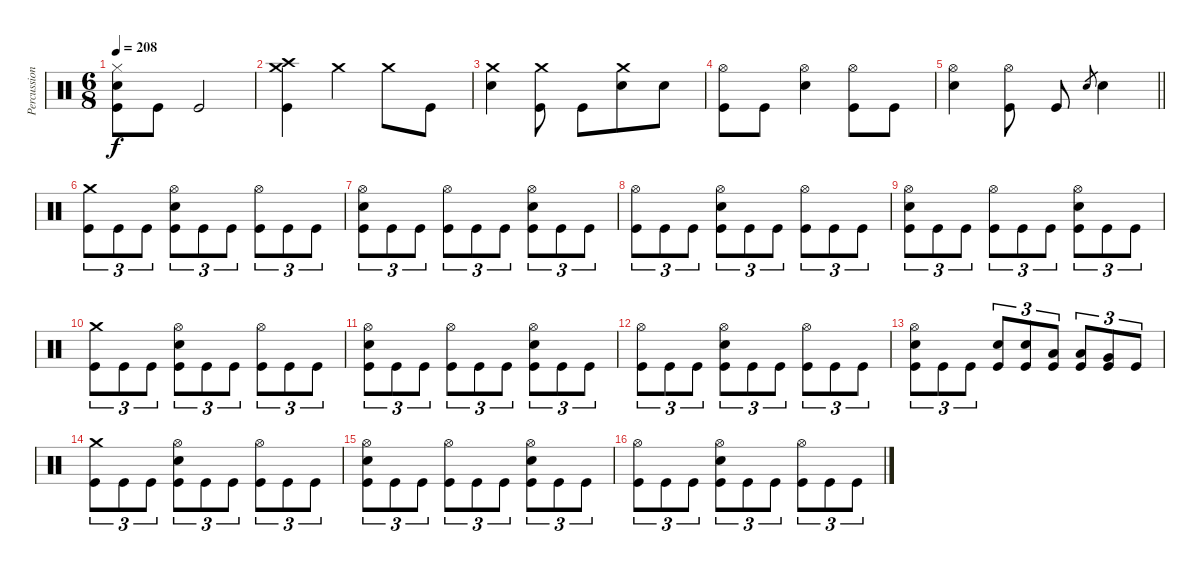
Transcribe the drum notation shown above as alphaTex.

\track ("Percussion" "Percussion") {instrument percussion}
\staff {score}
\articulation defaults
\ts (6 8)
\tempo 208
\clef neutral
\ks c
("Hi-Hat (closed)" "Electric Snare (hit)" "Kick (hit)").8{dy f} "Kick (hit)".8 "Kick (hit)".2 |
("Crash medium (hit)" "Crash high (hit)" "Kick (hit)").4 "Crash medium (hit)".4 "Crash medium (hit)".8 "Kick (hit)".8 |
("Crash medium (hit)" "Electric Snare (hit)").4 ("Crash medium (hit)" "Kick (hit)").8 "Kick (hit)".8 ("Crash medium (hit)" "Electric Snare (hit)").8 "Electric Snare (hit)".8 |
("Hi-Hat (open)" "Kick (hit)").8 "Kick (hit)".8 ("Hi-Hat (open)" "Electric Snare (hit)").4 ("Hi-Hat (open)" "Kick (hit)").8 "Kick (hit)".8 |
\barLineRight lightlight
("Hi-Hat (open)" "Electric Snare (hit)").4 ("Hi-Hat (open)" "Kick (hit)").8 "Kick (hit)".8 "Electric Snare (hit)".8{gr} "Electric Snare (hit)".4 |
("Crash medium (hit)" "Kick (hit)").8{tu (3 2)} "Kick (hit)".8{tu (3 2)} "Kick (hit)".8{tu (3 2)} ("Hi-Hat (open)" "Electric Snare (hit)" "Kick (hit)").8{tu (3 2)} "Kick (hit)".8{tu (3 2)} "Kick (hit)".8{tu (3 2)} ("Hi-Hat (open)" "Kick (hit)").8{tu (3 2)} "Kick (hit)".8{tu (3 2)} "Kick (hit)".8{tu (3 2)} |
("Hi-Hat (open)" "Electric Snare (hit)" "Kick (hit)").8{tu (3 2)} "Kick (hit)".8{tu (3 2)} "Kick (hit)".8{tu (3 2)} ("Hi-Hat (open)" "Kick (hit)").8{tu (3 2)} "Kick (hit)".8{tu (3 2)} "Kick (hit)".8{tu (3 2)} ("Hi-Hat (open)" "Electric Snare (hit)" "Kick (hit)").8{tu (3 2)} "Kick (hit)".8{tu (3 2)} "Kick (hit)".8{tu (3 2)} |
("Hi-Hat (open)" "Kick (hit)").8{tu (3 2)} "Kick (hit)".8{tu (3 2)} "Kick (hit)".8{tu (3 2)} ("Hi-Hat (open)" "Electric Snare (hit)" "Kick (hit)").8{tu (3 2)} "Kick (hit)".8{tu (3 2)} "Kick (hit)".8{tu (3 2)} ("Hi-Hat (open)" "Kick (hit)").8{tu (3 2)} "Kick (hit)".8{tu (3 2)} "Kick (hit)".8{tu (3 2)} |
("Hi-Hat (open)" "Electric Snare (hit)" "Kick (hit)").8{tu (3 2)} "Kick (hit)".8{tu (3 2)} "Kick (hit)".8{tu (3 2)} ("Hi-Hat (open)" "Kick (hit)").8{tu (3 2)} "Kick (hit)".8{tu (3 2)} "Kick (hit)".8{tu (3 2)} ("Hi-Hat (open)" "Electric Snare (hit)" "Kick (hit)").8{tu (3 2)} "Kick (hit)".8{tu (3 2)} "Kick (hit)".8{tu (3 2)} |
("Crash medium (hit)" "Kick (hit)").8{tu (3 2)} "Kick (hit)".8{tu (3 2)} "Kick (hit)".8{tu (3 2)} ("Hi-Hat (open)" "Electric Snare (hit)" "Kick (hit)").8{tu (3 2)} "Kick (hit)".8{tu (3 2)} "Kick (hit)".8{tu (3 2)} ("Hi-Hat (open)" "Kick (hit)").8{tu (3 2)} "Kick (hit)".8{tu (3 2)} "Kick (hit)".8{tu (3 2)} |
("Hi-Hat (open)" "Electric Snare (hit)" "Kick (hit)").8{tu (3 2)} "Kick (hit)".8{tu (3 2)} "Kick (hit)".8{tu (3 2)} ("Hi-Hat (open)" "Kick (hit)").8{tu (3 2)} "Kick (hit)".8{tu (3 2)} "Kick (hit)".8{tu (3 2)} ("Hi-Hat (open)" "Electric Snare (hit)" "Kick (hit)").8{tu (3 2)} "Kick (hit)".8{tu (3 2)} "Kick (hit)".8{tu (3 2)} |
("Hi-Hat (open)" "Kick (hit)").8{tu (3 2)} "Kick (hit)".8{tu (3 2)} "Kick (hit)".8{tu (3 2)} ("Hi-Hat (open)" "Electric Snare (hit)" "Kick (hit)").8{tu (3 2)} "Kick (hit)".8{tu (3 2)} "Kick (hit)".8{tu (3 2)} ("Hi-Hat (open)" "Kick (hit)").8{tu (3 2)} "Kick (hit)".8{tu (3 2)} "Kick (hit)".8{tu (3 2)} |
("Hi-Hat (open)" "Electric Snare (hit)" "Kick (hit)").8{tu (3 2)} "Kick (hit)".8{tu (3 2)} "Kick (hit)".8{tu (3 2)} ("Electric Snare (hit)" "Kick (hit)").8{tu (3 2)} ("Electric Snare (hit)" "Kick (hit)").8{tu (3 2)} ("Low Tom (hit)" "Kick (hit)").8{tu (3 2)} ("Low Tom (hit)" "Kick (hit)").8{tu (3 2)} ("Very Low Tom (hit)" "Kick (hit)").8{tu (3 2)} "Kick (hit)".8{tu (3 2)} |
("Crash medium (hit)" "Kick (hit)").8{tu (3 2)} "Kick (hit)".8{tu (3 2)} "Kick (hit)".8{tu (3 2)} ("Hi-Hat (open)" "Electric Snare (hit)" "Kick (hit)").8{tu (3 2)} "Kick (hit)".8{tu (3 2)} "Kick (hit)".8{tu (3 2)} ("Hi-Hat (open)" "Kick (hit)").8{tu (3 2)} "Kick (hit)".8{tu (3 2)} "Kick (hit)".8{tu (3 2)} |
("Hi-Hat (open)" "Electric Snare (hit)" "Kick (hit)").8{tu (3 2)} "Kick (hit)".8{tu (3 2)} "Kick (hit)".8{tu (3 2)} ("Hi-Hat (open)" "Kick (hit)").8{tu (3 2)} "Kick (hit)".8{tu (3 2)} "Kick (hit)".8{tu (3 2)} ("Hi-Hat (open)" "Electric Snare (hit)" "Kick (hit)").8{tu (3 2)} "Kick (hit)".8{tu (3 2)} "Kick (hit)".8{tu (3 2)} |
("Hi-Hat (open)" "Kick (hit)").8{tu (3 2)} "Kick (hit)".8{tu (3 2)} "Kick (hit)".8{tu (3 2)} ("Hi-Hat (open)" "Electric Snare (hit)" "Kick (hit)").8{tu (3 2)} "Kick (hit)".8{tu (3 2)} "Kick (hit)".8{tu (3 2)} ("Hi-Hat (open)" "Kick (hit)").8{tu (3 2)} "Kick (hit)".8{tu (3 2)} "Kick (hit)".8{tu (3 2)}
